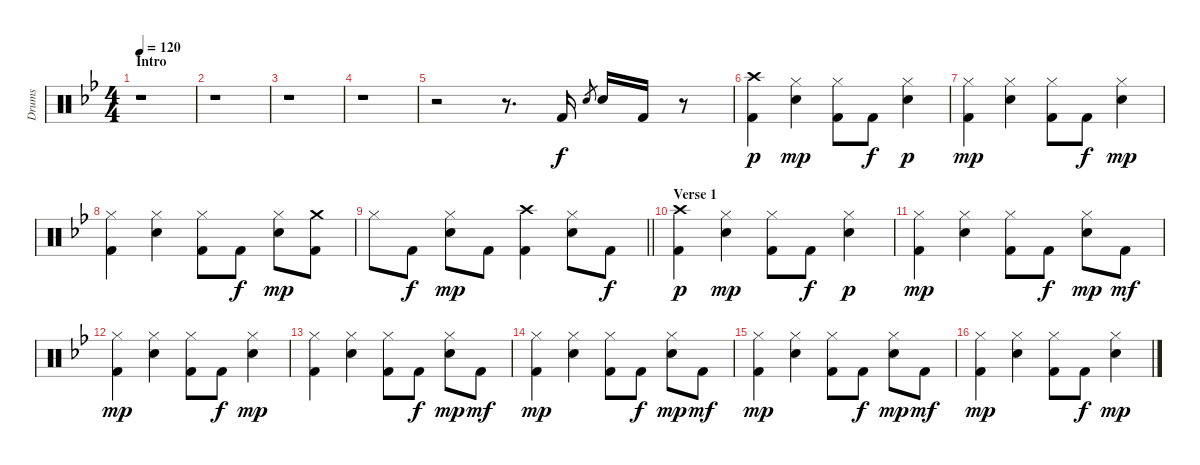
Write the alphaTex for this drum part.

\track ("Drums" "Drums") {instrument percussion}
\staff {score}
\articulation defaults
\ts (4 4)
\section ("" "Intro")
\tempo 120
\clef neutral
\ks bb
r.1{dy f} |
r.1 |
r.1 |
r.1 |
r.2 r.8{d} "Kick (hit) 2".16 "Electric Snare (hit)".8{gr} "Electric Snare (hit)".16 "Kick (hit) 2".16 r.8 |
("Kick (hit) 2" "Crash high (hit)").4{dy p} ("Electric Snare (hit)" "Hi-Hat (closed)").4{dy mp} ("Kick (hit) 2" "Hi-Hat (closed)").8 "Kick (hit) 2".8{dy f} ("Electric Snare (hit)" "Hi-Hat (closed)").4{dy p} |
("Kick (hit) 2" "Hi-Hat (closed)").4{dy mp} ("Electric Snare (hit)" "Hi-Hat (closed)").4 ("Kick (hit) 2" "Hi-Hat (closed)").8 "Kick (hit) 2".8{dy f} ("Electric Snare (hit)" "Hi-Hat (closed)").4{dy mp} |
("Kick (hit) 2" "Hi-Hat (closed)").4 ("Electric Snare (hit)" "Hi-Hat (closed)").4 ("Kick (hit) 2" "Hi-Hat (closed)").8 "Kick (hit) 2".8{dy f} ("Electric Snare (hit)" "Hi-Hat (closed)").8{dy mp} ("Kick (hit) 2" "Crash medium (hit)").8 |
\barLineRight lightlight "Hi-Hat (closed)".8 "Kick (hit) 2".8{dy f}
("Electric Snare (hit)" "Hi-Hat (closed)").8{dy mp} "Kick (hit) 2".8 ("Kick (hit) 2" "Crash high (hit)").4 ("Electric Snare (hit)" "Hi-Hat (closed)").8 "Kick (hit) 2".8{dy f} |
\section ("" "Verse 1")
("Kick (hit) 2" "Crash high (hit)").4{dy p} ("Electric Snare (hit)" "Hi-Hat (closed)").4{dy mp} ("Kick (hit) 2" "Hi-Hat (closed)").8 "Kick (hit) 2".8{dy f} ("Electric Snare (hit)" "Hi-Hat (closed)").4{dy p} |
("Kick (hit) 2" "Hi-Hat (closed)").4{dy mp} ("Electric Snare (hit)" "Hi-Hat (closed)").4 ("Kick (hit) 2" "Hi-Hat (closed)").8 "Kick (hit) 2".8{dy f} ("Electric Snare (hit)" "Hi-Hat (closed)").8{dy mp} "Kick (hit) 2".8{dy mf} |
("Kick (hit) 2" "Hi-Hat (closed)").4{dy mp} ("Electric Snare (hit)" "Hi-Hat (closed)").4 ("Kick (hit) 2" "Hi-Hat (closed)").8 "Kick (hit) 2".8{dy f} ("Electric Snare (hit)" "Hi-Hat (closed)").4{dy mp} |
("Kick (hit) 2" "Hi-Hat (closed)").4 ("Electric Snare (hit)" "Hi-Hat (closed)").4 ("Kick (hit) 2" "Hi-Hat (closed)").8 "Kick (hit) 2".8{dy f} ("Electric Snare (hit)" "Hi-Hat (closed)").8{dy mp} "Kick (hit) 2".8{dy mf} |
("Kick (hit) 2" "Hi-Hat (closed)").4{dy mp} ("Electric Snare (hit)" "Hi-Hat (closed)").4 ("Kick (hit) 2" "Hi-Hat (closed)").8 "Kick (hit) 2".8{dy f} ("Electric Snare (hit)" "Hi-Hat (closed)").8{dy mp} "Kick (hit) 2".8{dy mf} |
("Kick (hit) 2" "Hi-Hat (closed)").4{dy mp} ("Electric Snare (hit)" "Hi-Hat (closed)").4 ("Kick (hit) 2" "Hi-Hat (closed)").8 "Kick (hit) 2".8{dy f} ("Electric Snare (hit)" "Hi-Hat (closed)").8{dy mp} "Kick (hit) 2".8{dy mf} |
("Kick (hit) 2" "Hi-Hat (closed)").4{dy mp} ("Electric Snare (hit)" "Hi-Hat (closed)").4 ("Kick (hit) 2" "Hi-Hat (closed)").8 "Kick (hit) 2".8{dy f} ("Electric Snare (hit)" "Hi-Hat (closed)").4{dy mp}
